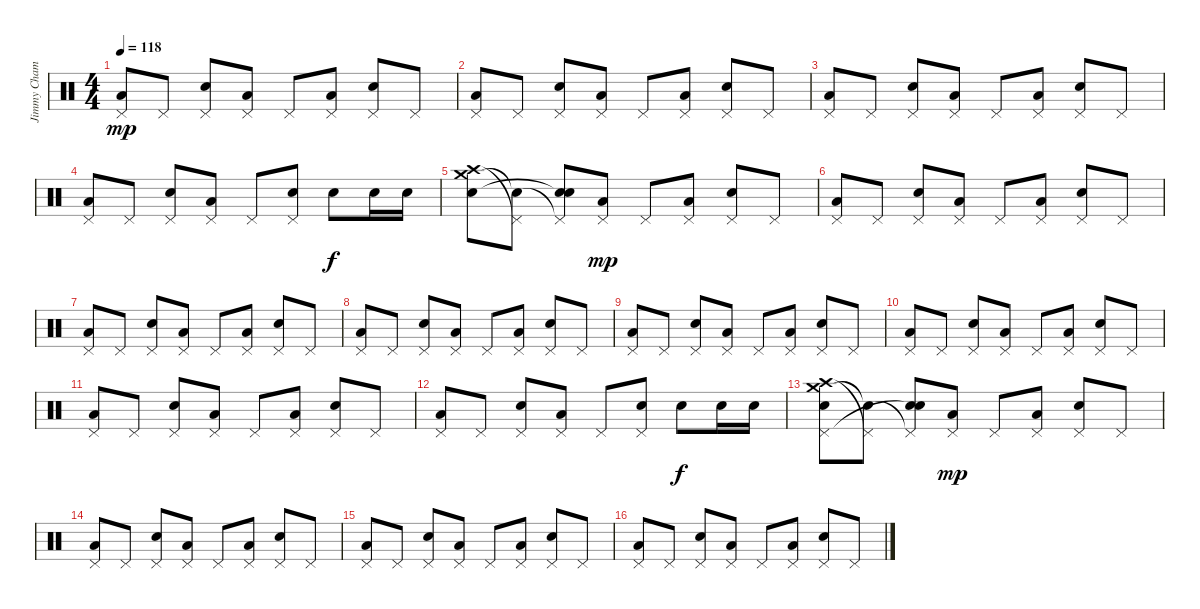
\track ("Jimmy Chamberlin" "Jimmy Cham") {instrument percussion}
\staff {score}
\articulation defaults
\ts (4 4)
\tempo 118
\clef neutral
\ks c
("Low Floor Tom (hit)" "Pedal Hi-Hat (hit)").8{dy mp} "Pedal Hi-Hat (hit)".8 ("Snare (hit) 2" "Pedal Hi-Hat (hit)").8 ("Low Floor Tom (hit)" "Pedal Hi-Hat (hit)").8 "Pedal Hi-Hat (hit)".8 ("Low Floor Tom (hit)" "Pedal Hi-Hat (hit)").8 ("Snare (hit) 2" "Pedal Hi-Hat (hit)").8 "Pedal Hi-Hat (hit)".8 |
("Low Floor Tom (hit)" "Pedal Hi-Hat (hit)").8 "Pedal Hi-Hat (hit)".8 ("Snare (hit) 2" "Pedal Hi-Hat (hit)").8 ("Low Floor Tom (hit)" "Pedal Hi-Hat (hit)").8 "Pedal Hi-Hat (hit)".8 ("Low Floor Tom (hit)" "Pedal Hi-Hat (hit)").8 ("Snare (hit) 2" "Pedal Hi-Hat (hit)").8 "Pedal Hi-Hat (hit)".8 |
("Low Floor Tom (hit)" "Pedal Hi-Hat (hit)").8 "Pedal Hi-Hat (hit)".8 ("Snare (hit) 2" "Pedal Hi-Hat (hit)").8 ("Low Floor Tom (hit)" "Pedal Hi-Hat (hit)").8 "Pedal Hi-Hat (hit)".8 ("Low Floor Tom (hit)" "Pedal Hi-Hat (hit)").8 ("Snare (hit) 2" "Pedal Hi-Hat (hit)").8 "Pedal Hi-Hat (hit)".8 |
("Low Floor Tom (hit)" "Pedal Hi-Hat (hit)").8 "Pedal Hi-Hat (hit)".8 ("Snare (hit) 2" "Pedal Hi-Hat (hit)").8 ("Low Floor Tom (hit)" "Pedal Hi-Hat (hit)").8 "Pedal Hi-Hat (hit)".8 ("Snare (hit) 2" "Pedal Hi-Hat (hit)").8 "Snare (hit) 2".8{dy f} "Snare (hit) 2".16 "Snare (hit) 2".16 |
("Crash high (hit)" "Crash medium (hit)" "Snare (hit)").8 ("Pedal Hi-Hat (hit)"{t} "Snare (hit)"{t}).8 ("Snare (hit) 2" "Pedal Hi-Hat (hit)"{t} "Snare (hit)"{t}).8 ("Low Floor Tom (hit)" "Pedal Hi-Hat (hit)").8{dy mp} "Pedal Hi-Hat (hit)".8 ("Low Floor Tom (hit)" "Pedal Hi-Hat (hit)").8 ("Snare (hit) 2" "Pedal Hi-Hat (hit)").8 "Pedal Hi-Hat (hit)".8 |
("Low Floor Tom (hit)" "Pedal Hi-Hat (hit)").8 "Pedal Hi-Hat (hit)".8 ("Snare (hit) 2" "Pedal Hi-Hat (hit)").8 ("Low Floor Tom (hit)" "Pedal Hi-Hat (hit)").8 "Pedal Hi-Hat (hit)".8 ("Low Floor Tom (hit)" "Pedal Hi-Hat (hit)").8 ("Snare (hit) 2" "Pedal Hi-Hat (hit)").8 "Pedal Hi-Hat (hit)".8 |
("Low Floor Tom (hit)" "Pedal Hi-Hat (hit)").8 "Pedal Hi-Hat (hit)".8 ("Snare (hit) 2" "Pedal Hi-Hat (hit)").8 ("Low Floor Tom (hit)" "Pedal Hi-Hat (hit)").8 "Pedal Hi-Hat (hit)".8 ("Low Floor Tom (hit)" "Pedal Hi-Hat (hit)").8 ("Snare (hit) 2" "Pedal Hi-Hat (hit)").8 "Pedal Hi-Hat (hit)".8 |
("Low Floor Tom (hit)" "Pedal Hi-Hat (hit)").8 "Pedal Hi-Hat (hit)".8 ("Snare (hit) 2" "Pedal Hi-Hat (hit)").8 ("Low Floor Tom (hit)" "Pedal Hi-Hat (hit)").8 "Pedal Hi-Hat (hit)".8 ("Low Floor Tom (hit)" "Pedal Hi-Hat (hit)").8 ("Snare (hit) 2" "Pedal Hi-Hat (hit)").8 "Pedal Hi-Hat (hit)".8 |
("Low Floor Tom (hit)" "Pedal Hi-Hat (hit)").8 "Pedal Hi-Hat (hit)".8 ("Snare (hit) 2" "Pedal Hi-Hat (hit)").8 ("Low Floor Tom (hit)" "Pedal Hi-Hat (hit)").8 "Pedal Hi-Hat (hit)".8 ("Low Floor Tom (hit)" "Pedal Hi-Hat (hit)").8 ("Snare (hit) 2" "Pedal Hi-Hat (hit)").8 "Pedal Hi-Hat (hit)".8 |
("Low Floor Tom (hit)" "Pedal Hi-Hat (hit)").8 "Pedal Hi-Hat (hit)".8 ("Snare (hit) 2" "Pedal Hi-Hat (hit)").8 ("Low Floor Tom (hit)" "Pedal Hi-Hat (hit)").8 "Pedal Hi-Hat (hit)".8 ("Low Floor Tom (hit)" "Pedal Hi-Hat (hit)").8 ("Snare (hit) 2" "Pedal Hi-Hat (hit)").8 "Pedal Hi-Hat (hit)".8 |
("Low Floor Tom (hit)" "Pedal Hi-Hat (hit)").8 "Pedal Hi-Hat (hit)".8 ("Snare (hit) 2" "Pedal Hi-Hat (hit)").8 ("Low Floor Tom (hit)" "Pedal Hi-Hat (hit)").8 "Pedal Hi-Hat (hit)".8 ("Low Floor Tom (hit)" "Pedal Hi-Hat (hit)").8 ("Snare (hit) 2" "Pedal Hi-Hat (hit)").8 "Pedal Hi-Hat (hit)".8 |
("Low Floor Tom (hit)" "Pedal Hi-Hat (hit)").8 "Pedal Hi-Hat (hit)".8 ("Snare (hit) 2" "Pedal Hi-Hat (hit)").8 ("Low Floor Tom (hit)" "Pedal Hi-Hat (hit)").8 "Pedal Hi-Hat (hit)".8 ("Snare (hit) 2" "Pedal Hi-Hat (hit)").8 "Snare (hit) 2".8{dy f} "Snare (hit) 2".16 "Snare (hit) 2".16 |
("Crash high (hit)" "Crash medium (hit)" "Pedal Hi-Hat (hit)" "Snare (hit)").8 ("Pedal Hi-Hat (hit)"{t} "Snare (hit)"{t}).8 ("Snare (hit) 2" "Pedal Hi-Hat (hit)"{t} "Snare (hit)"{t}).8 ("Low Floor Tom (hit)" "Pedal Hi-Hat (hit)").8{dy mp} "Pedal Hi-Hat (hit)".8 ("Low Floor Tom (hit)" "Pedal Hi-Hat (hit)").8 ("Snare (hit) 2" "Pedal Hi-Hat (hit)").8 "Pedal Hi-Hat (hit)".8 |
("Low Floor Tom (hit)" "Pedal Hi-Hat (hit)").8 "Pedal Hi-Hat (hit)".8 ("Snare (hit) 2" "Pedal Hi-Hat (hit)").8 ("Low Floor Tom (hit)" "Pedal Hi-Hat (hit)").8 "Pedal Hi-Hat (hit)".8 ("Low Floor Tom (hit)" "Pedal Hi-Hat (hit)").8 ("Snare (hit) 2" "Pedal Hi-Hat (hit)").8 "Pedal Hi-Hat (hit)".8 |
("Low Floor Tom (hit)" "Pedal Hi-Hat (hit)").8 "Pedal Hi-Hat (hit)".8 ("Snare (hit) 2" "Pedal Hi-Hat (hit)").8 ("Low Floor Tom (hit)" "Pedal Hi-Hat (hit)").8 "Pedal Hi-Hat (hit)".8 ("Low Floor Tom (hit)" "Pedal Hi-Hat (hit)").8 ("Snare (hit) 2" "Pedal Hi-Hat (hit)").8 "Pedal Hi-Hat (hit)".8 |
("Low Floor Tom (hit)" "Pedal Hi-Hat (hit)").8 "Pedal Hi-Hat (hit)".8 ("Snare (hit) 2" "Pedal Hi-Hat (hit)").8 ("Low Floor Tom (hit)" "Pedal Hi-Hat (hit)").8 "Pedal Hi-Hat (hit)".8 ("Low Floor Tom (hit)" "Pedal Hi-Hat (hit)").8 ("Snare (hit) 2" "Pedal Hi-Hat (hit)").8 "Pedal Hi-Hat (hit)".8
